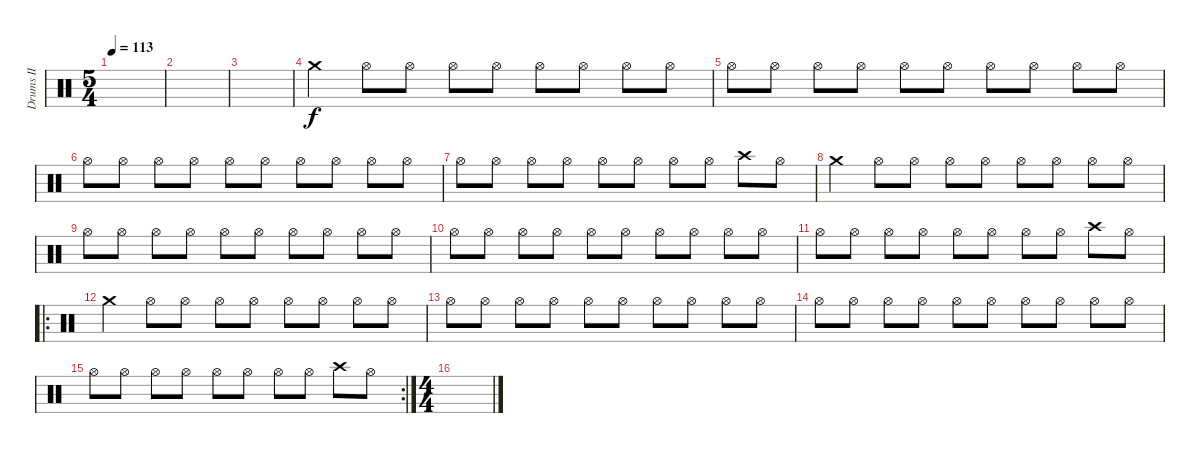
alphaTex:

\track ("Drums II" "Drums II") {instrument percussion}
\staff {score}
\articulation defaults
\ts (5 4)
\tempo 113
\clef neutral
\ks c
|
|
|
"Crash medium (hit)".4 "Hi-Hat (open)".8 "Hi-Hat (open)".8 "Hi-Hat (open)".8 "Hi-Hat (open)".8 "Hi-Hat (open)".8 "Hi-Hat (open)".8 "Hi-Hat (open)".8 "Hi-Hat (open)".8 |
"Hi-Hat (open)".8 "Hi-Hat (open)".8 "Hi-Hat (open)".8 "Hi-Hat (open)".8 "Hi-Hat (open)".8 "Hi-Hat (open)".8 "Hi-Hat (open)".8 "Hi-Hat (open)".8 "Hi-Hat (open)".8 "Hi-Hat (open)".8 |
"Hi-Hat (open)".8 "Hi-Hat (open)".8 "Hi-Hat (open)".8 "Hi-Hat (open)".8 "Hi-Hat (open)".8 "Hi-Hat (open)".8 "Hi-Hat (open)".8 "Hi-Hat (open)".8 "Hi-Hat (open)".8 "Hi-Hat (open)".8 |
"Hi-Hat (open)".8 "Hi-Hat (open)".8 "Hi-Hat (open)".8 "Hi-Hat (open)".8 "Hi-Hat (open)".8 "Hi-Hat (open)".8 "Hi-Hat (open)".8 "Hi-Hat (open)".8 "Crash high (hit)".8 "Hi-Hat (open)".8 |
"Crash medium (hit)".4 "Hi-Hat (open)".8 "Hi-Hat (open)".8 "Hi-Hat (open)".8 "Hi-Hat (open)".8 "Hi-Hat (open)".8 "Hi-Hat (open)".8 "Hi-Hat (open)".8 "Hi-Hat (open)".8 |
"Hi-Hat (open)".8 "Hi-Hat (open)".8 "Hi-Hat (open)".8 "Hi-Hat (open)".8 "Hi-Hat (open)".8 "Hi-Hat (open)".8 "Hi-Hat (open)".8 "Hi-Hat (open)".8 "Hi-Hat (open)".8 "Hi-Hat (open)".8 |
"Hi-Hat (open)".8 "Hi-Hat (open)".8 "Hi-Hat (open)".8 "Hi-Hat (open)".8 "Hi-Hat (open)".8 "Hi-Hat (open)".8 "Hi-Hat (open)".8 "Hi-Hat (open)".8 "Hi-Hat (open)".8 "Hi-Hat (open)".8 |
"Hi-Hat (open)".8 "Hi-Hat (open)".8 "Hi-Hat (open)".8 "Hi-Hat (open)".8 "Hi-Hat (open)".8 "Hi-Hat (open)".8 "Hi-Hat (open)".8 "Hi-Hat (open)".8 "Crash high (hit)".8 "Hi-Hat (open)".8 |
\ro "Crash medium (hit)".4 "Hi-Hat (open)".8 "Hi-Hat (open)".8 "Hi-Hat (open)".8 "Hi-Hat (open)".8 "Hi-Hat (open)".8 "Hi-Hat (open)".8 "Hi-Hat (open)".8 "Hi-Hat (open)".8
|
"Hi-Hat (open)".8 "Hi-Hat (open)".8 "Hi-Hat (open)".8 "Hi-Hat (open)".8 "Hi-Hat (open)".8 "Hi-Hat (open)".8 "Hi-Hat (open)".8 "Hi-Hat (open)".8 "Hi-Hat (open)".8 "Hi-Hat (open)".8 |
"Hi-Hat (open)".8 "Hi-Hat (open)".8 "Hi-Hat (open)".8 "Hi-Hat (open)".8 "Hi-Hat (open)".8 "Hi-Hat (open)".8 "Hi-Hat (open)".8 "Hi-Hat (open)".8 "Hi-Hat (open)".8 "Hi-Hat (open)".8 |
\rc 2 "Hi-Hat (open)".8 "Hi-Hat (open)".8 "Hi-Hat (open)".8 "Hi-Hat (open)".8 "Hi-Hat (open)".8 "Hi-Hat (open)".8 "Hi-Hat (open)".8 "Hi-Hat (open)".8 "Crash high (hit)".8 "Hi-Hat (open)".8
|
\ts (4 4)
